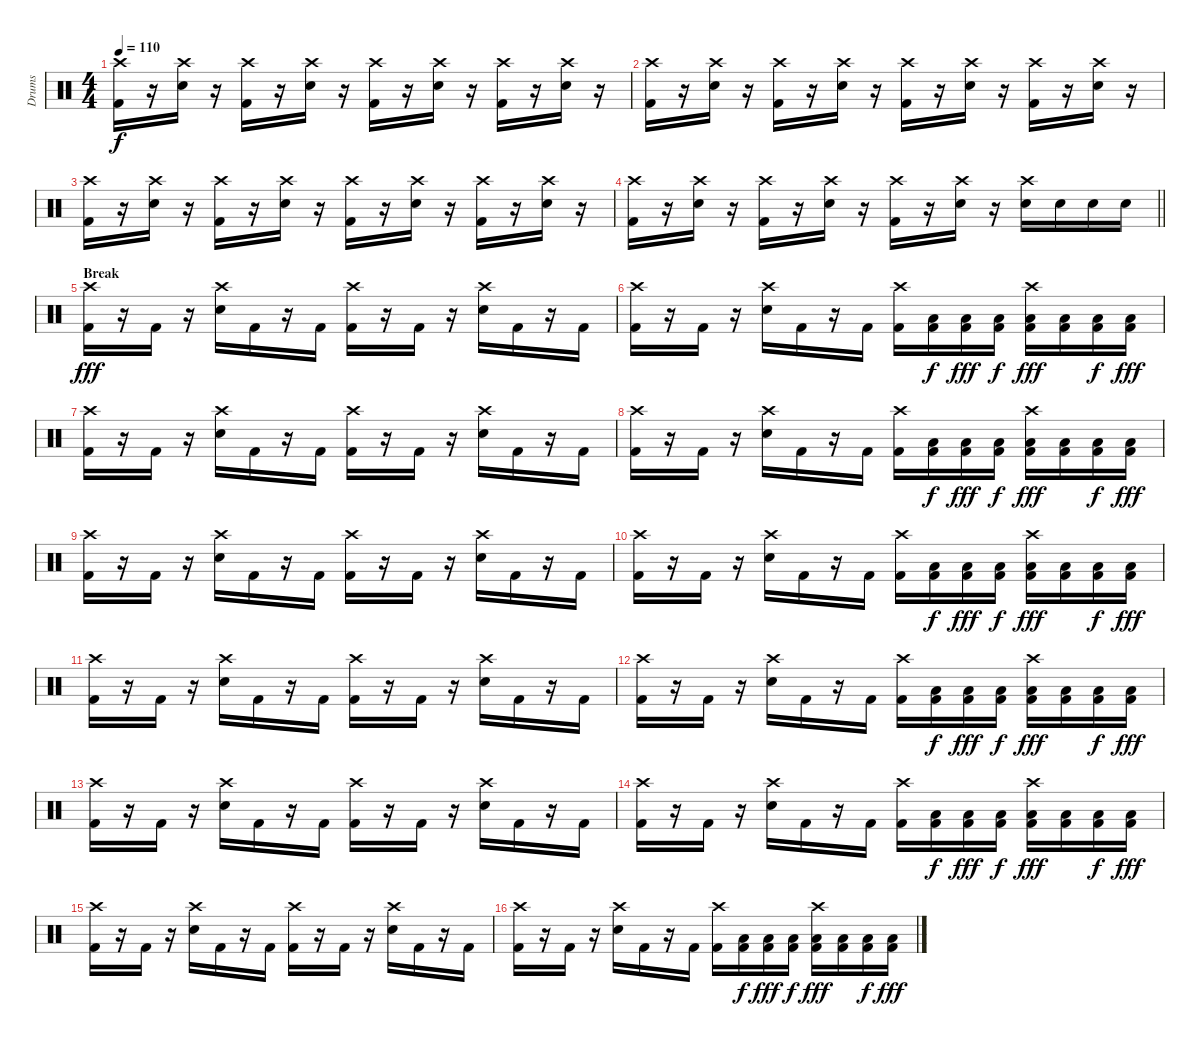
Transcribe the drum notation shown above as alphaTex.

\track ("Drums" "Drums") {instrument percussion}
\staff {score}
\articulation defaults
\ts (4 4)
\tempo 110
\clef neutral
\ks c
("Crash high (hit)" "Kick (hit) 2").16{dy f} r.16 ("Crash high (hit)" "Electric Snare (hit)").16 r.16 ("Crash high (hit)" "Kick (hit) 2").16 r.16 ("Crash high (hit)" "Electric Snare (hit)").16 r.16 ("Crash high (hit)" "Kick (hit) 2").16 r.16 ("Crash high (hit)" "Electric Snare (hit)").16 r.16 ("Crash high (hit)" "Kick (hit) 2").16 r.16 ("Crash high (hit)" "Electric Snare (hit)").16 r.16 |
("Crash high (hit)" "Kick (hit) 2").16 r.16 ("Crash high (hit)" "Electric Snare (hit)").16 r.16 ("Crash high (hit)" "Kick (hit) 2").16 r.16 ("Crash high (hit)" "Electric Snare (hit)").16 r.16 ("Crash high (hit)" "Kick (hit) 2").16 r.16 ("Crash high (hit)" "Electric Snare (hit)").16 r.16 ("Crash high (hit)" "Kick (hit) 2").16 r.16 ("Crash high (hit)" "Electric Snare (hit)").16 r.16 |
("Crash high (hit)" "Kick (hit) 2").16 r.16 ("Crash high (hit)" "Electric Snare (hit)").16 r.16 ("Crash high (hit)" "Kick (hit) 2").16 r.16 ("Crash high (hit)" "Electric Snare (hit)").16 r.16 ("Crash high (hit)" "Kick (hit) 2").16 r.16 ("Crash high (hit)" "Electric Snare (hit)").16 r.16 ("Crash high (hit)" "Kick (hit) 2").16 r.16 ("Crash high (hit)" "Electric Snare (hit)").16 r.16 |
\barLineRight lightlight
("Crash high (hit)" "Kick (hit) 2").16 r.16 ("Crash high (hit)" "Electric Snare (hit)").16 r.16 ("Crash high (hit)" "Kick (hit) 2").16 r.16 ("Crash high (hit)" "Electric Snare (hit)").16 r.16 ("Crash high (hit)" "Kick (hit) 2").16 r.16 ("Crash high (hit)" "Electric Snare (hit)").16 r.16 ("Crash high (hit)" "Electric Snare (hit)").16 "Electric Snare (hit)".16 "Electric Snare (hit)".16 "Electric Snare (hit)".16 |
\section ("" "Break")
("Crash high (hit)" "Kick (hit) 2").16{dy fff} r.16 "Kick (hit) 2".16 r.16 ("Crash high (hit)" "Electric Snare (hit)").16 "Kick (hit) 2".16 r.16 "Kick (hit) 2".16 ("Crash high (hit)" "Kick (hit) 2").16 r.16 "Kick (hit) 2".16 r.16 ("Crash high (hit)" "Electric Snare (hit)").16 "Kick (hit) 2".16 r.16 "Kick (hit) 2".16 |
("Crash high (hit)" "Kick (hit) 2").16 r.16 "Kick (hit) 2".16 r.16 ("Crash high (hit)" "Electric Snare (hit)").16 "Kick (hit) 2".16 r.16 "Kick (hit) 2".16 ("Crash high (hit)" "Kick (hit) 2").16 ("Low Floor Tom (hit)" "Kick (hit) 2").16{dy f} ("Low Floor Tom (hit)" "Kick (hit) 2").16{dy fff} ("Low Floor Tom (hit)" "Kick (hit) 2").16{dy f} ("Crash high (hit)" "Low Floor Tom (hit)" "Kick (hit) 2").16{dy fff} ("Low Floor Tom (hit)" "Kick (hit) 2").16 ("Low Floor Tom (hit)" "Kick (hit) 2").16{dy f} ("Low Floor Tom (hit)" "Kick (hit) 2").16{dy fff} |
("Crash high (hit)" "Kick (hit) 2").16 r.16 "Kick (hit) 2".16 r.16 ("Crash high (hit)" "Electric Snare (hit)").16 "Kick (hit) 2".16 r.16 "Kick (hit) 2".16 ("Crash high (hit)" "Kick (hit) 2").16 r.16 "Kick (hit) 2".16 r.16 ("Crash high (hit)" "Electric Snare (hit)").16 "Kick (hit) 2".16 r.16 "Kick (hit) 2".16 |
("Crash high (hit)" "Kick (hit) 2").16 r.16 "Kick (hit) 2".16 r.16 ("Crash high (hit)" "Electric Snare (hit)").16 "Kick (hit) 2".16 r.16 "Kick (hit) 2".16 ("Crash high (hit)" "Kick (hit) 2").16 ("Low Floor Tom (hit)" "Kick (hit) 2").16{dy f} ("Low Floor Tom (hit)" "Kick (hit) 2").16{dy fff} ("Low Floor Tom (hit)" "Kick (hit) 2").16{dy f} ("Crash high (hit)" "Low Floor Tom (hit)" "Kick (hit) 2").16{dy fff} ("Low Floor Tom (hit)" "Kick (hit) 2").16 ("Low Floor Tom (hit)" "Kick (hit) 2").16{dy f} ("Low Floor Tom (hit)" "Kick (hit) 2").16{dy fff} |
("Crash high (hit)" "Kick (hit) 2").16 r.16 "Kick (hit) 2".16 r.16 ("Crash high (hit)" "Electric Snare (hit)").16 "Kick (hit) 2".16 r.16 "Kick (hit) 2".16 ("Crash high (hit)" "Kick (hit) 2").16 r.16 "Kick (hit) 2".16 r.16 ("Crash high (hit)" "Electric Snare (hit)").16 "Kick (hit) 2".16 r.16 "Kick (hit) 2".16 |
("Crash high (hit)" "Kick (hit) 2").16 r.16 "Kick (hit) 2".16 r.16 ("Crash high (hit)" "Electric Snare (hit)").16 "Kick (hit) 2".16 r.16 "Kick (hit) 2".16 ("Crash high (hit)" "Kick (hit) 2").16 ("Low Floor Tom (hit)" "Kick (hit) 2").16{dy f} ("Low Floor Tom (hit)" "Kick (hit) 2").16{dy fff} ("Low Floor Tom (hit)" "Kick (hit) 2").16{dy f} ("Crash high (hit)" "Low Floor Tom (hit)" "Kick (hit) 2").16{dy fff} ("Low Floor Tom (hit)" "Kick (hit) 2").16 ("Low Floor Tom (hit)" "Kick (hit) 2").16{dy f} ("Low Floor Tom (hit)" "Kick (hit) 2").16{dy fff} |
("Crash high (hit)" "Kick (hit) 2").16 r.16 "Kick (hit) 2".16 r.16 ("Crash high (hit)" "Electric Snare (hit)").16 "Kick (hit) 2".16 r.16 "Kick (hit) 2".16 ("Crash high (hit)" "Kick (hit) 2").16 r.16 "Kick (hit) 2".16 r.16 ("Crash high (hit)" "Electric Snare (hit)").16 "Kick (hit) 2".16 r.16 "Kick (hit) 2".16 |
("Crash high (hit)" "Kick (hit) 2").16 r.16 "Kick (hit) 2".16 r.16 ("Crash high (hit)" "Electric Snare (hit)").16 "Kick (hit) 2".16 r.16 "Kick (hit) 2".16 ("Crash high (hit)" "Kick (hit) 2").16 ("Low Floor Tom (hit)" "Kick (hit) 2").16{dy f} ("Low Floor Tom (hit)" "Kick (hit) 2").16{dy fff} ("Low Floor Tom (hit)" "Kick (hit) 2").16{dy f} ("Crash high (hit)" "Low Floor Tom (hit)" "Kick (hit) 2").16{dy fff} ("Low Floor Tom (hit)" "Kick (hit) 2").16 ("Low Floor Tom (hit)" "Kick (hit) 2").16{dy f} ("Low Floor Tom (hit)" "Kick (hit) 2").16{dy fff} |
("Crash high (hit)" "Kick (hit) 2").16 r.16 "Kick (hit) 2".16 r.16 ("Crash high (hit)" "Electric Snare (hit)").16 "Kick (hit) 2".16 r.16 "Kick (hit) 2".16 ("Crash high (hit)" "Kick (hit) 2").16 r.16 "Kick (hit) 2".16 r.16 ("Crash high (hit)" "Electric Snare (hit)").16 "Kick (hit) 2".16 r.16 "Kick (hit) 2".16 |
("Crash high (hit)" "Kick (hit) 2").16 r.16 "Kick (hit) 2".16 r.16 ("Crash high (hit)" "Electric Snare (hit)").16 "Kick (hit) 2".16 r.16 "Kick (hit) 2".16 ("Crash high (hit)" "Kick (hit) 2").16 ("Low Floor Tom (hit)" "Kick (hit) 2").16{dy f} ("Low Floor Tom (hit)" "Kick (hit) 2").16{dy fff} ("Low Floor Tom (hit)" "Kick (hit) 2").16{dy f} ("Crash high (hit)" "Low Floor Tom (hit)" "Kick (hit) 2").16{dy fff} ("Low Floor Tom (hit)" "Kick (hit) 2").16 ("Low Floor Tom (hit)" "Kick (hit) 2").16{dy f} ("Low Floor Tom (hit)" "Kick (hit) 2").16{dy fff} |
("Crash high (hit)" "Kick (hit) 2").16 r.16 "Kick (hit) 2".16 r.16 ("Crash high (hit)" "Electric Snare (hit)").16 "Kick (hit) 2".16 r.16 "Kick (hit) 2".16 ("Crash high (hit)" "Kick (hit) 2").16 r.16 "Kick (hit) 2".16 r.16 ("Crash high (hit)" "Electric Snare (hit)").16 "Kick (hit) 2".16 r.16 "Kick (hit) 2".16 |
("Crash high (hit)" "Kick (hit) 2").16 r.16 "Kick (hit) 2".16 r.16 ("Crash high (hit)" "Electric Snare (hit)").16 "Kick (hit) 2".16 r.16 "Kick (hit) 2".16 ("Crash high (hit)" "Kick (hit) 2").16 ("Low Floor Tom (hit)" "Kick (hit) 2").16{dy f} ("Low Floor Tom (hit)" "Kick (hit) 2").16{dy fff} ("Low Floor Tom (hit)" "Kick (hit) 2").16{dy f} ("Crash high (hit)" "Low Floor Tom (hit)" "Kick (hit) 2").16{dy fff} ("Low Floor Tom (hit)" "Kick (hit) 2").16 ("Low Floor Tom (hit)" "Kick (hit) 2").16{dy f} ("Low Floor Tom (hit)" "Kick (hit) 2").16{dy fff}
